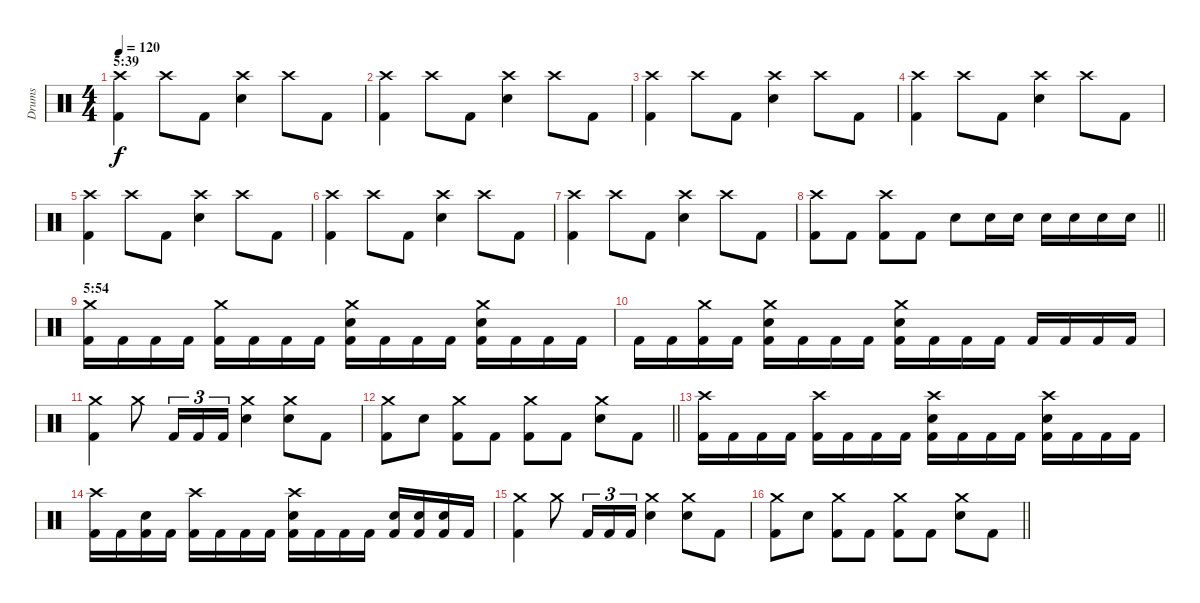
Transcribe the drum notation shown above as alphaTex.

\track ("Drums" "Drums") {instrument percussion}
\staff {score}
\articulation defaults
\ts (4 4)
\section ("" "5:39")
\tempo 120
\clef neutral
\ks c
("Crash high (hit)" "Kick (hit) 2").4{dy f} "Crash high (hit)".8 "Kick (hit) 2".8 ("Crash high (hit)" "Snare (hit) 2").4 "Crash high (hit)".8 "Kick (hit) 2".8 |
("Crash high (hit)" "Kick (hit) 2").4 "Crash high (hit)".8 "Kick (hit) 2".8 ("Crash high (hit)" "Snare (hit) 2").4 "Crash high (hit)".8 "Kick (hit) 2".8 |
("Crash high (hit)" "Kick (hit) 2").4 "Crash high (hit)".8 "Kick (hit) 2".8 ("Crash high (hit)" "Snare (hit) 2").4 "Crash high (hit)".8 "Kick (hit) 2".8 |
("Crash high (hit)" "Kick (hit) 2").4 "Crash high (hit)".8 "Kick (hit) 2".8 ("Crash high (hit)" "Snare (hit) 2").4 "Crash high (hit)".8 "Kick (hit) 2".8 |
("Crash high (hit)" "Kick (hit) 2").4 "Crash high (hit)".8 "Kick (hit) 2".8 ("Crash high (hit)" "Snare (hit) 2").4 "Crash high (hit)".8 "Kick (hit) 2".8 |
("Crash high (hit)" "Kick (hit) 2").4 "Crash high (hit)".8 "Kick (hit) 2".8 ("Crash high (hit)" "Snare (hit) 2").4 "Crash high (hit)".8 "Kick (hit) 2".8 |
("Crash high (hit)" "Kick (hit) 2").4 "Crash high (hit)".8 "Kick (hit) 2".8 ("Crash high (hit)" "Snare (hit) 2").4 "Crash high (hit)".8 "Kick (hit) 2".8 |
\barLineRight lightlight
("Crash high (hit)" "Kick (hit) 2").8 "Kick (hit) 2".8 ("Crash high (hit)" "Kick (hit) 2").8 "Kick (hit) 2".8 "Snare (hit) 2".8 "Snare (hit) 2".16 "Snare (hit) 2".16 "Snare (hit) 2".16 "Snare (hit) 2".16 "Snare (hit) 2".16 "Snare (hit) 2".16 |
\section ("" "5:54")
("Crash medium (hit)" "Kick (hit) 2").16{volume 14} "Kick (hit) 2".16 "Kick (hit) 2".16 "Kick (hit) 2".16 ("Crash medium (hit)" "Kick (hit) 2").16 "Kick (hit) 2".16 "Kick (hit) 2".16 "Kick (hit) 2".16 ("Crash medium (hit)" "Snare (hit) 2" "Kick (hit) 2").16 "Kick (hit) 2".16 "Kick (hit) 2".16 "Kick (hit) 2".16 ("Crash medium (hit)" "Snare (hit) 2" "Kick (hit) 2").16 "Kick (hit) 2".16 "Kick (hit) 2".16 "Kick (hit) 2".16 |
"Kick (hit) 2".16 "Kick (hit) 2".16 ("Crash medium (hit)" "Kick (hit) 2").16 "Kick (hit) 2".16 ("Crash medium (hit)" "Snare (hit) 2" "Kick (hit) 2").16 "Kick (hit) 2".16 "Kick (hit) 2".16 "Kick (hit) 2".16 ("Crash medium (hit)" "Snare (hit) 2" "Kick (hit) 2").16 "Kick (hit) 2".16 "Kick (hit) 2".16 "Kick (hit) 2".16 "Kick (hit) 2".16 "Kick (hit) 2".16 "Kick (hit) 2".16 "Kick (hit) 2".16 |
("Crash medium (hit)" "Kick (hit) 2").4 "Crash medium (hit)".8 "Kick (hit) 2".16{tu (3 2)} "Kick (hit) 2".16{tu (3 2)} "Kick (hit) 2".16{tu (3 2)} ("Crash medium (hit)" "Snare (hit) 2").4 ("Crash medium (hit)" "Snare (hit) 2").8 "Kick (hit) 2".8 |
\barLineRight lightlight
("Crash medium (hit)" "Kick (hit) 2").8 "Snare (hit) 2".8 ("Crash medium (hit)" "Kick (hit) 2").8 "Kick (hit) 2".8 ("Crash medium (hit)" "Kick (hit) 2").8 "Kick (hit) 2".8 ("Crash medium (hit)" "Snare (hit) 2").8 "Kick (hit) 2".8 |
("Crash high (hit)" "Kick (hit) 2").16 "Kick (hit) 2".16 "Kick (hit) 2".16 "Kick (hit) 2".16 ("Crash high (hit)" "Kick (hit) 2").16 "Kick (hit) 2".16 "Kick (hit) 2".16 "Kick (hit) 2".16 ("Crash high (hit)" "Snare (hit) 2" "Kick (hit) 2").16 "Kick (hit) 2".16 "Kick (hit) 2".16 "Kick (hit) 2".16 ("Crash high (hit)" "Snare (hit) 2" "Kick (hit) 2").16 "Kick (hit) 2".16 "Kick (hit) 2".16 "Kick (hit) 2".16 |
("Crash high (hit)" "Kick (hit) 2").16 "Kick (hit) 2".16 ("Snare (hit) 2" "Kick (hit) 2").16 "Kick (hit) 2".16 ("Crash high (hit)" "Kick (hit) 2").16 "Kick (hit) 2".16 "Kick (hit) 2".16 "Kick (hit) 2".16 ("Crash high (hit)" "Snare (hit) 2" "Kick (hit) 2").16 "Kick (hit) 2".16 "Kick (hit) 2".16 "Kick (hit) 2".16 ("Snare (hit) 2" "Kick (hit) 2").16 ("Snare (hit) 2" "Kick (hit) 2").16 ("Snare (hit) 2" "Kick (hit) 2").16 "Kick (hit) 2".16 |
("Crash medium (hit)" "Kick (hit) 2").4 "Crash medium (hit)".8 "Kick (hit) 2".16{tu (3 2)} "Kick (hit) 2".16{tu (3 2)} "Kick (hit) 2".16{tu (3 2)} ("Crash medium (hit)" "Snare (hit) 2").4 ("Crash medium (hit)" "Snare (hit) 2").8 "Kick (hit) 2".8 |
\barLineRight lightlight
("Crash medium (hit)" "Kick (hit) 2").8 "Snare (hit) 2".8 ("Crash medium (hit)" "Kick (hit) 2").8 "Kick (hit) 2".8 ("Crash medium (hit)" "Kick (hit) 2").8 "Kick (hit) 2".8 ("Crash medium (hit)" "Snare (hit) 2").8 "Kick (hit) 2".8
